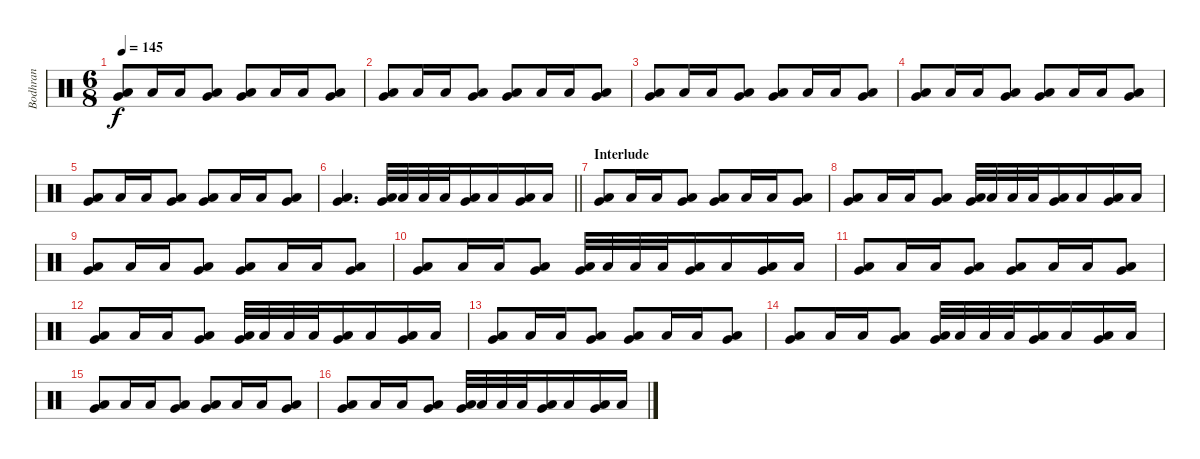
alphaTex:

\track ("Bodhran" "Bodhran") {instrument percussion}
\staff {score}
\articulation defaults
\ts (6 8)
\tempo 145
\clef neutral
\ks c
("Very Low Tom (hit)" "Low Floor Tom (hit)").8{dy f} "Low Floor Tom (hit)".16 "Low Floor Tom (hit)".16 ("Very Low Tom (hit)" "Low Floor Tom (hit)").8 ("Very Low Tom (hit)" "Low Floor Tom (hit)").8 "Low Floor Tom (hit)".16 "Low Floor Tom (hit)".16 ("Very Low Tom (hit)" "Low Floor Tom (hit)").8 |
("Very Low Tom (hit)" "Low Floor Tom (hit)").8 "Low Floor Tom (hit)".16 "Low Floor Tom (hit)".16 ("Very Low Tom (hit)" "Low Floor Tom (hit)").8 ("Very Low Tom (hit)" "Low Floor Tom (hit)").8 "Low Floor Tom (hit)".16 "Low Floor Tom (hit)".16 ("Very Low Tom (hit)" "Low Floor Tom (hit)").8 |
("Very Low Tom (hit)" "Low Floor Tom (hit)").8 "Low Floor Tom (hit)".16 "Low Floor Tom (hit)".16 ("Very Low Tom (hit)" "Low Floor Tom (hit)").8 ("Very Low Tom (hit)" "Low Floor Tom (hit)").8 "Low Floor Tom (hit)".16 "Low Floor Tom (hit)".16 ("Very Low Tom (hit)" "Low Floor Tom (hit)").8 |
("Very Low Tom (hit)" "Low Floor Tom (hit)").8 "Low Floor Tom (hit)".16 "Low Floor Tom (hit)".16 ("Very Low Tom (hit)" "Low Floor Tom (hit)").8 ("Very Low Tom (hit)" "Low Floor Tom (hit)").8 "Low Floor Tom (hit)".16 "Low Floor Tom (hit)".16 ("Very Low Tom (hit)" "Low Floor Tom (hit)").8 |
("Very Low Tom (hit)" "Low Floor Tom (hit)").8 "Low Floor Tom (hit)".16 "Low Floor Tom (hit)".16 ("Very Low Tom (hit)" "Low Floor Tom (hit)").8 ("Very Low Tom (hit)" "Low Floor Tom (hit)").8 "Low Floor Tom (hit)".16 "Low Floor Tom (hit)".16 ("Very Low Tom (hit)" "Low Floor Tom (hit)").8 |
\barLineRight lightlight
("Very Low Tom (hit)" "Low Floor Tom (hit)").4{d} ("Very Low Tom (hit)" "Low Floor Tom (hit)").32 "Low Floor Tom (hit)".32 "Low Floor Tom (hit)".32 "Low Floor Tom (hit)".32 ("Very Low Tom (hit)" "Low Floor Tom (hit)").16 "Low Floor Tom (hit)".16 ("Very Low Tom (hit)" "Low Floor Tom (hit)").16 "Low Floor Tom (hit)".16 |
\section ("" "Interlude")
("Very Low Tom (hit)" "Low Floor Tom (hit)").8 "Low Floor Tom (hit)".16 "Low Floor Tom (hit)".16 ("Very Low Tom (hit)" "Low Floor Tom (hit)").8 ("Very Low Tom (hit)" "Low Floor Tom (hit)").8 "Low Floor Tom (hit)".16 "Low Floor Tom (hit)".16 ("Very Low Tom (hit)" "Low Floor Tom (hit)").8 |
("Very Low Tom (hit)" "Low Floor Tom (hit)").8 "Low Floor Tom (hit)".16 "Low Floor Tom (hit)".16 ("Very Low Tom (hit)" "Low Floor Tom (hit)").8 ("Very Low Tom (hit)" "Low Floor Tom (hit)").32 "Low Floor Tom (hit)".32 "Low Floor Tom (hit)".32 "Low Floor Tom (hit)".32 ("Very Low Tom (hit)" "Low Floor Tom (hit)").16 "Low Floor Tom (hit)".16 ("Very Low Tom (hit)" "Low Floor Tom (hit)").16 "Low Floor Tom (hit)".16 |
("Very Low Tom (hit)" "Low Floor Tom (hit)").8 "Low Floor Tom (hit)".16 "Low Floor Tom (hit)".16 ("Very Low Tom (hit)" "Low Floor Tom (hit)").8 ("Very Low Tom (hit)" "Low Floor Tom (hit)").8 "Low Floor Tom (hit)".16 "Low Floor Tom (hit)".16 ("Very Low Tom (hit)" "Low Floor Tom (hit)").8 |
("Very Low Tom (hit)" "Low Floor Tom (hit)").8 "Low Floor Tom (hit)".16 "Low Floor Tom (hit)".16 ("Very Low Tom (hit)" "Low Floor Tom (hit)").8 ("Very Low Tom (hit)" "Low Floor Tom (hit)").32 "Low Floor Tom (hit)".32 "Low Floor Tom (hit)".32 "Low Floor Tom (hit)".32 ("Very Low Tom (hit)" "Low Floor Tom (hit)").16 "Low Floor Tom (hit)".16 ("Very Low Tom (hit)" "Low Floor Tom (hit)").16 "Low Floor Tom (hit)".16 |
("Very Low Tom (hit)" "Low Floor Tom (hit)").8 "Low Floor Tom (hit)".16 "Low Floor Tom (hit)".16 ("Very Low Tom (hit)" "Low Floor Tom (hit)").8 ("Very Low Tom (hit)" "Low Floor Tom (hit)").8 "Low Floor Tom (hit)".16 "Low Floor Tom (hit)".16 ("Very Low Tom (hit)" "Low Floor Tom (hit)").8 |
("Very Low Tom (hit)" "Low Floor Tom (hit)").8 "Low Floor Tom (hit)".16 "Low Floor Tom (hit)".16 ("Very Low Tom (hit)" "Low Floor Tom (hit)").8 ("Very Low Tom (hit)" "Low Floor Tom (hit)").32 "Low Floor Tom (hit)".32 "Low Floor Tom (hit)".32 "Low Floor Tom (hit)".32 ("Very Low Tom (hit)" "Low Floor Tom (hit)").16 "Low Floor Tom (hit)".16 ("Very Low Tom (hit)" "Low Floor Tom (hit)").16 "Low Floor Tom (hit)".16 |
("Very Low Tom (hit)" "Low Floor Tom (hit)").8 "Low Floor Tom (hit)".16 "Low Floor Tom (hit)".16 ("Very Low Tom (hit)" "Low Floor Tom (hit)").8 ("Very Low Tom (hit)" "Low Floor Tom (hit)").8 "Low Floor Tom (hit)".16 "Low Floor Tom (hit)".16 ("Very Low Tom (hit)" "Low Floor Tom (hit)").8 |
("Very Low Tom (hit)" "Low Floor Tom (hit)").8 "Low Floor Tom (hit)".16 "Low Floor Tom (hit)".16 ("Very Low Tom (hit)" "Low Floor Tom (hit)").8 ("Very Low Tom (hit)" "Low Floor Tom (hit)").32 "Low Floor Tom (hit)".32 "Low Floor Tom (hit)".32 "Low Floor Tom (hit)".32 ("Very Low Tom (hit)" "Low Floor Tom (hit)").16 "Low Floor Tom (hit)".16 ("Very Low Tom (hit)" "Low Floor Tom (hit)").16 "Low Floor Tom (hit)".16 |
("Very Low Tom (hit)" "Low Floor Tom (hit)").8 "Low Floor Tom (hit)".16 "Low Floor Tom (hit)".16 ("Very Low Tom (hit)" "Low Floor Tom (hit)").8 ("Very Low Tom (hit)" "Low Floor Tom (hit)").8 "Low Floor Tom (hit)".16 "Low Floor Tom (hit)".16 ("Very Low Tom (hit)" "Low Floor Tom (hit)").8 |
("Very Low Tom (hit)" "Low Floor Tom (hit)").8 "Low Floor Tom (hit)".16 "Low Floor Tom (hit)".16 ("Very Low Tom (hit)" "Low Floor Tom (hit)").8 ("Very Low Tom (hit)" "Low Floor Tom (hit)").32 "Low Floor Tom (hit)".32 "Low Floor Tom (hit)".32 "Low Floor Tom (hit)".32 ("Very Low Tom (hit)" "Low Floor Tom (hit)").16 "Low Floor Tom (hit)".16 ("Very Low Tom (hit)" "Low Floor Tom (hit)").16 "Low Floor Tom (hit)".16
